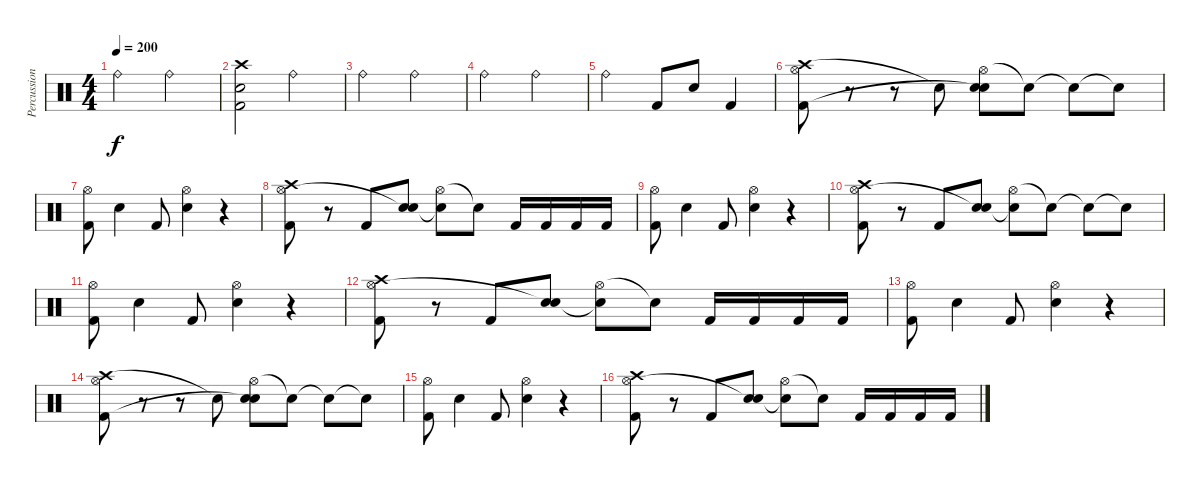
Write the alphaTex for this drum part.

\track ("Percussion" "Percussion") {instrument percussion}
\staff {score}
\articulation defaults
\ts (4 4)
\tempo 200
\clef neutral
\ks c "Ride (bell)".2{dy f} "Ride (bell)".2
|
("Crash high (hit)" "Electric Snare (hit)" "Kick (hit) 2").2 "Ride (bell)".2 |
"Ride (bell)".2 "Ride (bell)".2 |
"Ride (bell)".2 "Ride (bell)".2 |
"Ride (bell)".2 "Kick (hit) 2".8 "Electric Snare (hit)".8 "Kick (hit) 2".4 |
("Crash high (hit)" "Hi-Hat (open)" "Kick (hit) 2").8 r.8 r.8 "Electric Snare (hit)"{t}.8 ("Hi-Hat (open)" "Electric Snare (hit)" "Snare (hit)"{t}).8 "Snare (hit)"{t}.8 "Snare (hit)"{t}.8 "Snare (hit)"{t}.8 |
("Hi-Hat (open)" "Kick (hit) 2").8 "Electric Snare (hit)".4 "Kick (hit) 2".8 ("Hi-Hat (open)" "Electric Snare (hit)").4 r.4 |
("Crash high (hit)" "Hi-Hat (open)" "Kick (hit) 2").8 r.8 "Kick (hit) 2".8 ("Electric Snare (hit)" "Electric Snare (hit)"{t}).8 ("Hi-Hat (open)" "Snare (hit)"{t}).8 "Snare (hit)"{t}.8 "Kick (hit) 2".16 "Kick (hit) 2".16 "Kick (hit) 2".16 "Kick (hit) 2".16 |
("Hi-Hat (open)" "Kick (hit) 2").8 "Electric Snare (hit)".4 "Kick (hit) 2".8 ("Hi-Hat (open)" "Electric Snare (hit)").4 r.4 |
("Crash high (hit)" "Hi-Hat (open)" "Kick (hit) 2").8 r.8 "Kick (hit) 2".8 ("Electric Snare (hit)" "Electric Snare (hit)"{t}).8 ("Hi-Hat (open)" "Snare (hit)"{t}).8 "Snare (hit)"{t}.8 "Snare (hit)"{t}.8 "Snare (hit)"{t}.8 |
("Hi-Hat (open)" "Kick (hit) 2").8 "Electric Snare (hit)".4 "Kick (hit) 2".8 ("Hi-Hat (open)" "Electric Snare (hit)").4 r.4 |
("Crash high (hit)" "Hi-Hat (open)" "Kick (hit) 2").8 r.8 "Kick (hit) 2".8 ("Electric Snare (hit)" "Electric Snare (hit)"{t}).8 ("Hi-Hat (open)" "Snare (hit)"{t}).8 "Snare (hit)"{t}.8 "Kick (hit) 2".16 "Kick (hit) 2".16 "Kick (hit) 2".16 "Kick (hit) 2".16 |
("Hi-Hat (open)" "Kick (hit) 2").8 "Electric Snare (hit)".4 "Kick (hit) 2".8 ("Hi-Hat (open)" "Electric Snare (hit)").4 r.4 |
("Crash high (hit)" "Hi-Hat (open)" "Kick (hit) 2").8 r.8 r.8 "Electric Snare (hit)"{t}.8 ("Hi-Hat (open)" "Electric Snare (hit)" "Snare (hit)"{t}).8 "Snare (hit)"{t}.8 "Snare (hit)"{t}.8 "Snare (hit)"{t}.8 |
("Hi-Hat (open)" "Kick (hit) 2").8 "Electric Snare (hit)".4 "Kick (hit) 2".8 ("Hi-Hat (open)" "Electric Snare (hit)").4 r.4 |
("Crash high (hit)" "Hi-Hat (open)" "Kick (hit) 2").8 r.8 "Kick (hit) 2".8 ("Electric Snare (hit)" "Electric Snare (hit)"{t}).8 ("Hi-Hat (open)" "Snare (hit)"{t}).8 "Snare (hit)"{t}.8 "Kick (hit) 2".16 "Kick (hit) 2".16 "Kick (hit) 2".16 "Kick (hit) 2".16
